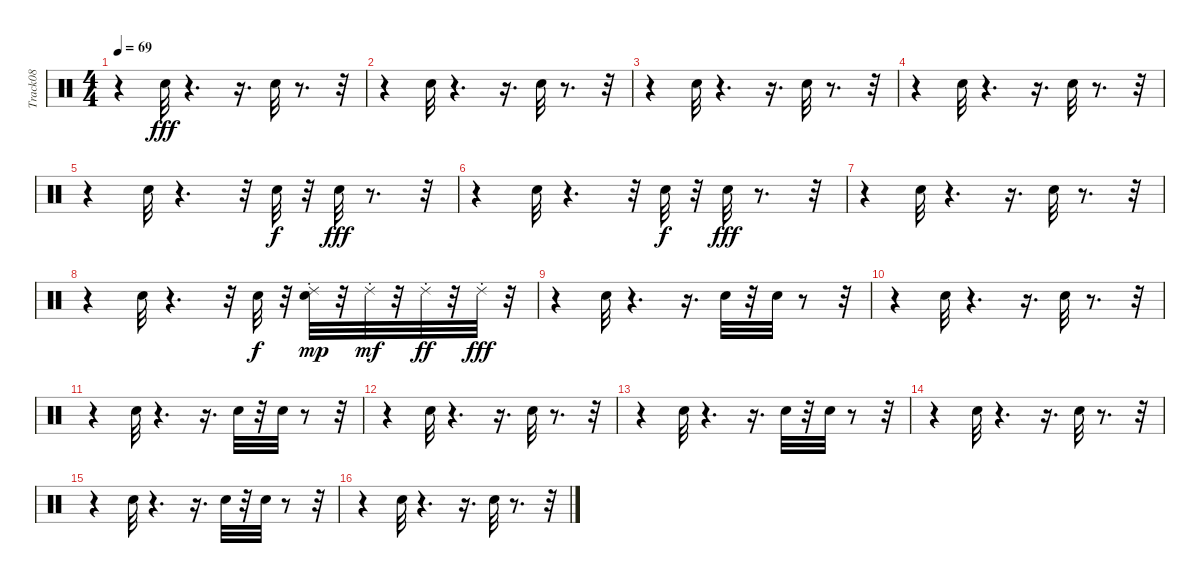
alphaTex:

\track ("Track08" "Track08") {instrument percussion}
\staff {score}
\articulation defaults
\ts (4 4)
\tempo 69
\clef neutral
\ks c
r.4{dy fff} "Snare (hit) 2".32 r.4{d} r.16{d} "Snare (hit) 2".32 r.8{d} r.32 |
r.4 "Snare (hit) 2".32 r.4{d} r.16{d} "Snare (hit) 2".32 r.8{d} r.32 |
r.4 "Snare (hit) 2".32 r.4{d} r.16{d} "Snare (hit) 2".32 r.8{d} r.32 |
r.4 "Snare (hit) 2".32 r.4{d} r.16{d} "Snare (hit) 2".32 r.8{d} r.32 |
r.4 "Snare (hit) 2".32 r.4{d} r.32 "Snare (hit) 2".32{dy f} r.32 "Snare (hit) 2".32{dy fff} r.8{d} r.32 |
r.4 "Snare (hit) 2".32 r.4{d} r.32 "Snare (hit) 2".32{dy f} r.32 "Snare (hit) 2".32{dy fff} r.8{d} r.32 |
r.4 "Snare (hit) 2".32 r.4{d} r.16{d} "Snare (hit) 2".32 r.8{d} r.32 |
r.4 "Snare (hit) 2".32 r.4{d} r.32 "Snare (hit) 2".32{dy f} r.32 ("Snare (hit) 2" "Ride (choke) 2").32{dy mp} r.32 "Ride (choke) 2".32{dy mf} r.32 "Ride (choke) 2".32{dy ff} r.32 "Ride (choke) 2".32{dy fff} r.32 |
r.4 "Snare (hit) 2".32 r.4{d} r.16{d} "Snare (hit) 2".32 r.32 "Snare (hit) 2".32 r.8 r.32 |
r.4 "Snare (hit) 2".32 r.4{d} r.16{d} "Snare (hit) 2".32 r.8{d} r.32 |
r.4 "Snare (hit) 2".32 r.4{d} r.16{d} "Snare (hit) 2".32 r.32 "Snare (hit) 2".32 r.8 r.32 |
r.4 "Snare (hit) 2".32 r.4{d} r.16{d} "Snare (hit) 2".32 r.8{d} r.32 |
r.4 "Snare (hit) 2".32 r.4{d} r.16{d} "Snare (hit) 2".32 r.32 "Snare (hit) 2".32 r.8 r.32 |
r.4 "Snare (hit) 2".32 r.4{d} r.16{d} "Snare (hit) 2".32 r.8{d} r.32 |
r.4 "Snare (hit) 2".32 r.4{d} r.16{d} "Snare (hit) 2".32 r.32 "Snare (hit) 2".32 r.8 r.32 |
r.4 "Snare (hit) 2".32 r.4{d} r.16{d} "Snare (hit) 2".32 r.8{d} r.32
